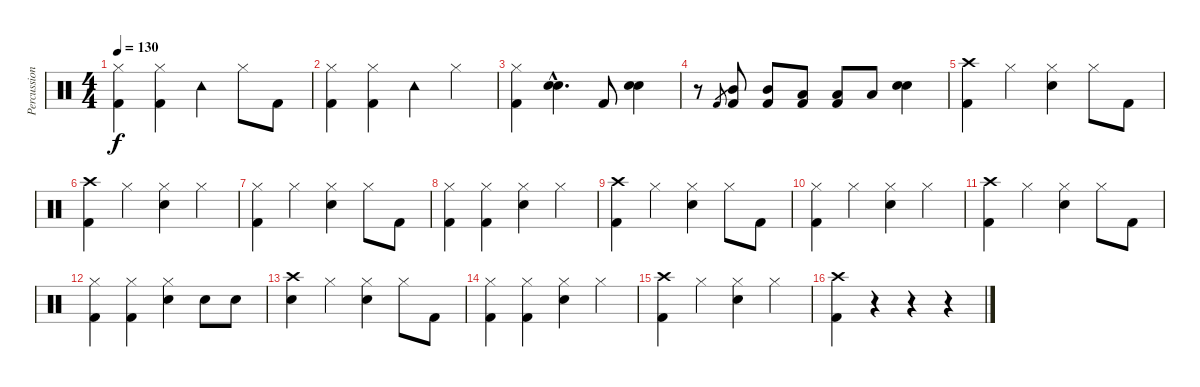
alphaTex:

\track ("Percussion" "Percussion") {instrument percussion}
\staff {score}
\articulation defaults
\ts (4 4)
\tempo 130
\clef neutral
\ks c
("Kick (hit) 2" "Hi-Hat (closed)").4{dy f} ("Kick (hit) 2" "Hi-Hat (closed)").4 "Tambourine (hit)".4 "Hi-Hat (closed)".8 "Kick (hit) 2".8 |
("Hi-Hat (closed)" "Kick (hit) 2").4 ("Hi-Hat (closed)" "Kick (hit) 2").4 "Tambourine (hit)".4 "Hi-Hat (closed)".4 |
("Hi-Hat (closed)" "Kick (hit) 2").4 ("Snare (hit) 2"{hac} "Snare (hit) 2"{hac}).4{d} "Kick (hit) 2".8 ("Snare (hit) 2" "Snare (hit) 2").4 |
r.8 "Kick (hit) 2".8{gr} ("Mid Tom (hit)" "Kick (hit) 2").8 ("Mid Tom (hit)" "Kick (hit) 2").8 ("Low Tom (hit)" "Kick (hit) 2").8 ("Low Tom (hit)" "Kick (hit) 2").8 "Low Floor Tom (hit)".8 ("Snare (hit) 2" "Snare (hit) 2").4 |
("Crash high (hit)" "Kick (hit) 2").4 "Hi-Hat (closed)".4 ("Hi-Hat (closed)" "Snare (hit) 2").4 "Hi-Hat (closed)".8 "Kick (hit) 2".8 |
("Crash high (hit)" "Kick (hit) 2").4 "Hi-Hat (closed)".4 ("Hi-Hat (closed)" "Snare (hit) 2").4 "Hi-Hat (closed)".4 |
("Hi-Hat (closed)" "Kick (hit) 2").4 "Hi-Hat (closed)".4 ("Hi-Hat (closed)" "Snare (hit) 2").4 "Hi-Hat (closed)".8 "Kick (hit) 2".8 |
("Hi-Hat (closed)" "Kick (hit) 2").4 ("Hi-Hat (closed)" "Kick (hit) 2").4 ("Hi-Hat (closed)" "Snare (hit) 2").4 "Hi-Hat (closed)".4 |
("Crash high (hit)" "Kick (hit) 2").4 "Hi-Hat (closed)".4 ("Hi-Hat (closed)" "Snare (hit) 2").4 "Hi-Hat (closed)".8 "Kick (hit) 2".8 |
("Kick (hit) 2" "Hi-Hat (closed)").4 "Hi-Hat (closed)".4 ("Snare (hit) 2" "Hi-Hat (closed)").4 "Hi-Hat (closed)".4 |
("Crash high (hit)" "Kick (hit) 2").4 "Hi-Hat (closed)".4 ("Hi-Hat (closed)" "Snare (hit) 2").4 "Hi-Hat (closed)".8 "Kick (hit) 2".8 |
("Hi-Hat (closed)" "Kick (hit) 2").4 ("Hi-Hat (closed)" "Kick (hit) 2").4 ("Snare (hit) 2" "Hi-Hat (closed)").4 "Snare (hit) 2".8 "Snare (hit) 2".8 |
("Crash high (hit)" "Snare (hit) 2").4 "Hi-Hat (closed)".4 ("Hi-Hat (closed)" "Snare (hit) 2").4 "Hi-Hat (closed)".8 "Kick (hit) 2".8 |
("Hi-Hat (closed)" "Kick (hit) 2").4 ("Hi-Hat (closed)" "Kick (hit) 2").4 ("Hi-Hat (closed)" "Snare (hit) 2").4 "Hi-Hat (closed)".4 |
("Crash high (hit)" "Kick (hit) 2").4 "Hi-Hat (closed)".4 ("Hi-Hat (closed)" "Snare (hit) 2").4 "Hi-Hat (closed)".4 |
("Crash high (hit)" "Kick (hit) 2").4 r.4 r.4 r.4
